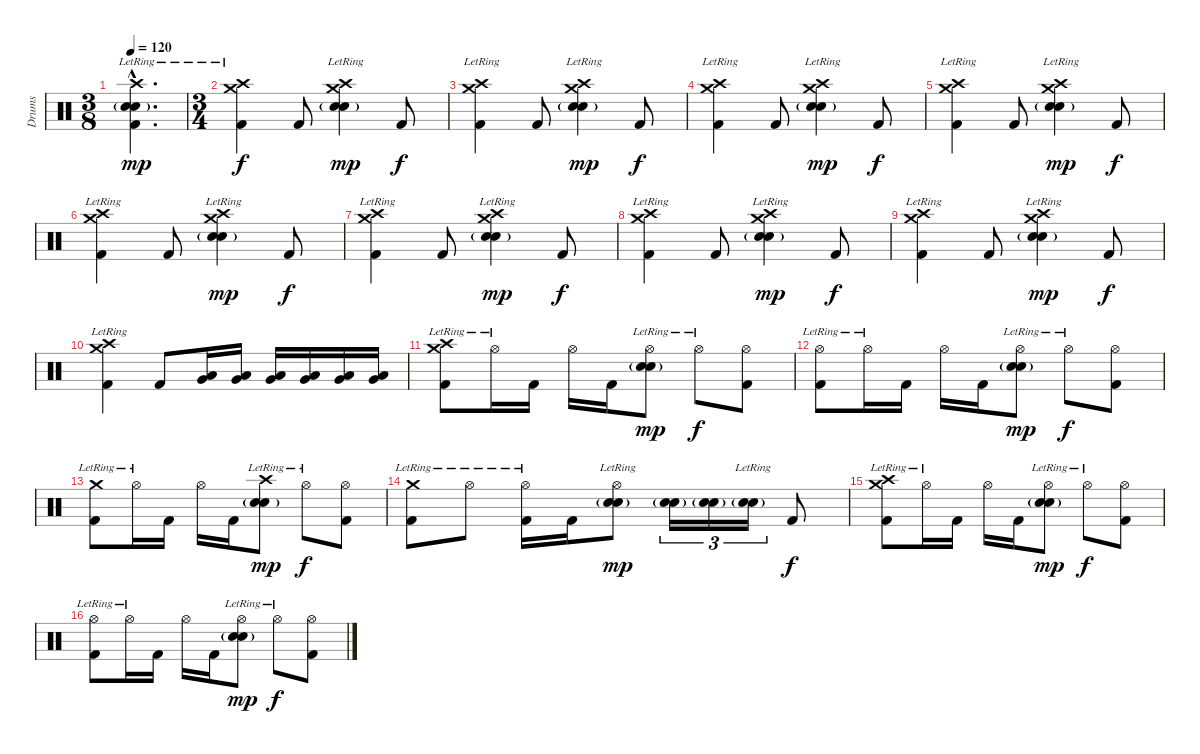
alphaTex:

\track ("Drums" "Drums") {instrument percussion}
\staff {score}
\articulation defaults
\ts (3 8)
\tempo 120
\clef neutral
\ks c
("Crash high (hit)"{hac lr} "Electric Snare (hit)"{g hac} "Snare (hit) 2"{hac lr} "Kick (hit) 2"{hac}).4{d dy mp} |
\ts (3 4)
("Crash high (hit)"{lr} "Crash medium (hit)"{lr} "Kick (hit) 2").4{dy f} "Kick (hit) 2".8 ("Crash high (hit)"{lr} "Crash medium (hit)"{lr} "Electric Snare (hit)"{g} "Snare (hit) 2"{lr}).4{dy mp} "Kick (hit) 2".8{dy f} |
("Crash high (hit)"{lr} "Crash medium (hit)"{lr} "Kick (hit) 2").4 "Kick (hit) 2".8 ("Crash high (hit)"{lr} "Crash medium (hit)"{lr} "Electric Snare (hit)"{g} "Snare (hit) 2"{lr}).4{dy mp} "Kick (hit) 2".8{dy f} |
("Crash high (hit)"{lr} "Crash medium (hit)"{lr} "Kick (hit) 2").4 "Kick (hit) 2".8 ("Crash high (hit)"{lr} "Crash medium (hit)"{lr} "Electric Snare (hit)"{g} "Snare (hit) 2"{lr}).4{dy mp} "Kick (hit) 2".8{dy f} |
("Crash high (hit)"{lr} "Crash medium (hit)"{lr} "Kick (hit) 2").4 "Kick (hit) 2".8 ("Crash high (hit)"{lr} "Crash medium (hit)"{lr} "Electric Snare (hit)"{g} "Snare (hit) 2"{lr}).4{dy mp} "Kick (hit) 2".8{dy f} |
("Crash high (hit)"{lr} "Crash medium (hit)"{lr} "Kick (hit) 2").4 "Kick (hit) 2".8 ("Crash high (hit)"{lr} "Crash medium (hit)"{lr} "Electric Snare (hit)"{g} "Snare (hit) 2"{lr}).4{dy mp} "Kick (hit) 2".8{dy f} |
("Crash high (hit)"{lr} "Crash medium (hit)"{lr} "Kick (hit) 2").4 "Kick (hit) 2".8 ("Crash high (hit)"{lr} "Crash medium (hit)"{lr} "Electric Snare (hit)"{g} "Snare (hit) 2"{lr}).4{dy mp} "Kick (hit) 2".8{dy f} |
("Crash high (hit)"{lr} "Crash medium (hit)"{lr} "Kick (hit) 2").4 "Kick (hit) 2".8 ("Crash high (hit)"{lr} "Crash medium (hit)"{lr} "Electric Snare (hit)"{g} "Snare (hit) 2"{lr}).4{dy mp} "Kick (hit) 2".8{dy f} |
("Crash high (hit)"{lr} "Crash medium (hit)"{lr} "Kick (hit) 2").4 "Kick (hit) 2".8 ("Crash high (hit)"{lr} "Crash medium (hit)"{lr} "Electric Snare (hit)"{g} "Snare (hit) 2"{lr}).4{dy mp} "Kick (hit) 2".8{dy f} |
("Crash high (hit)"{lr} "Crash medium (hit)"{lr} "Kick (hit) 2").4 "Kick (hit) 2".8 ("Low Tom (hit)" "Very Low Tom (hit)").16 ("Low Tom (hit)" "Very Low Tom (hit)").16 ("Low Tom (hit)" "Very Low Tom (hit)").16 ("Low Tom (hit)" "Very Low Tom (hit)").16 ("Very Low Tom (hit)" "Low Floor Tom (hit)").16 ("Very Low Tom (hit)" "Low Floor Tom (hit)").16 |
("Crash high (hit)"{lr} "Crash medium (hit)"{lr} "Kick (hit) 2").8 "Hi-Hat (open)"{lr}.16 "Kick (hit) 2".16 "Hi-Hat (open)".16 "Kick (hit) 2".16 ("Hi-Hat (open)"{lr} "Electric Snare (hit)"{g} "Snare (hit) 2"{lr}).8{dy mp} "Hi-Hat (open)"{lr}.8{dy f} ("Hi-Hat (open)" "Kick (hit) 2").8 |
("Hi-Hat (open)"{lr} "Kick (hit) 2").8 "Hi-Hat (open)"{lr}.16 "Kick (hit) 2".16 "Hi-Hat (open)".16 "Kick (hit) 2".16 ("Hi-Hat (open)"{lr} "Electric Snare (hit)"{g} "Snare (hit) 2"{lr}).8{dy mp} "Hi-Hat (open)"{lr}.8{dy f} ("Hi-Hat (open)" "Kick (hit) 2").8 |
("Crash medium (hit)"{lr} "Kick (hit) 2").8 "Hi-Hat (open)"{lr}.16 "Kick (hit) 2".16 "Hi-Hat (open)".16 "Kick (hit) 2".16 ("Crash high (hit)"{lr} "Electric Snare (hit)"{g} "Snare (hit) 2"{lr}).8{dy mp} "Hi-Hat (open)"{lr}.8{dy f} ("Hi-Hat (open)" "Kick (hit) 2").8 |
("Crash medium (hit)"{lr} "Kick (hit) 2").8 "Hi-Hat (open)"{lr}.8 ("Hi-Hat (open)"{lr} "Kick (hit) 2").16 "Kick (hit) 2".16 ("Hi-Hat (open)"{lr} "Electric Snare (hit)"{g} "Snare (hit) 2"{lr}).8{dy mp} ("Electric Snare (hit)"{g} "Snare (hit) 2").16{tu (3 2)} ("Electric Snare (hit)"{g} "Snare (hit) 2").16{tu (3 2)} ("Electric Snare (hit)"{g} "Snare (hit) 2"{lr}).16{tu (3 2)} "Kick (hit) 2".8{dy f} |
("Crash high (hit)"{lr} "Crash medium (hit)"{lr} "Kick (hit) 2").8 "Hi-Hat (open)"{lr}.16 "Kick (hit) 2".16 "Hi-Hat (open)".16 "Kick (hit) 2".16 ("Hi-Hat (open)"{lr} "Electric Snare (hit)"{g} "Snare (hit) 2"{lr}).8{dy mp} "Hi-Hat (open)"{lr}.8{dy f} ("Hi-Hat (open)" "Kick (hit) 2").8 |
("Hi-Hat (open)"{lr} "Kick (hit) 2").8 "Hi-Hat (open)"{lr}.16 "Kick (hit) 2".16 "Hi-Hat (open)".16 "Kick (hit) 2".16 ("Hi-Hat (open)"{lr} "Electric Snare (hit)"{g} "Snare (hit) 2"{lr}).8{dy mp} "Hi-Hat (open)"{lr}.8{dy f} ("Hi-Hat (open)" "Kick (hit) 2").8
